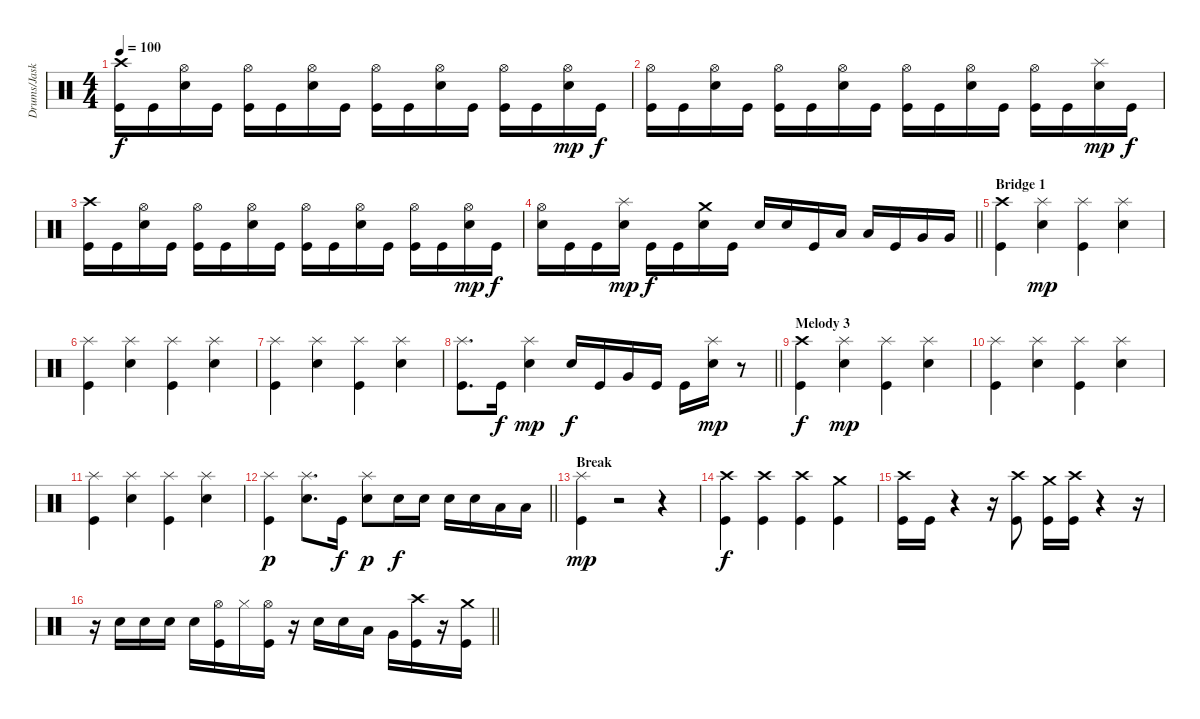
\track ("Drums/Jaska" "Drums/Jask") {instrument percussion}
\staff {score}
\articulation defaults
\ts (4 4)
\tempo 100
\clef neutral
\ks c
("Crash high (hit)" "Kick (hit)").16{dy f} "Kick (hit)".16 ("Hi-Hat (open)" "Electric Snare (hit)").16 "Kick (hit)".16 ("Hi-Hat (open)" "Kick (hit)").16 "Kick (hit)".16 ("Hi-Hat (open)" "Electric Snare (hit)").16 "Kick (hit)".16 ("Hi-Hat (open)" "Kick (hit)").16 "Kick (hit)".16 ("Hi-Hat (open)" "Electric Snare (hit)").16 "Kick (hit)".16 ("Hi-Hat (open)" "Kick (hit)").16 "Kick (hit)".16 ("Hi-Hat (open)" "Electric Snare (hit)").16{dy mp} "Kick (hit)".16{dy f} |
("Hi-Hat (open)" "Kick (hit)").16 "Kick (hit)".16 ("Hi-Hat (open)" "Electric Snare (hit)").16 "Kick (hit)".16 ("Hi-Hat (open)" "Kick (hit)").16 "Kick (hit)".16 ("Hi-Hat (open)" "Electric Snare (hit)").16 "Kick (hit)".16 ("Hi-Hat (open)" "Kick (hit)").16 "Kick (hit)".16 ("Hi-Hat (open)" "Electric Snare (hit)").16 "Kick (hit)".16 ("Hi-Hat (open)" "Kick (hit)").16 "Kick (hit)".16 ("Splash (hit)" "Electric Snare (hit)").16{dy mp} "Kick (hit)".16{dy f} |
("Crash high (hit)" "Kick (hit)").16 "Kick (hit)".16 ("Hi-Hat (open)" "Electric Snare (hit)").16 "Kick (hit)".16 ("Hi-Hat (open)" "Kick (hit)").16 "Kick (hit)".16 ("Hi-Hat (open)" "Electric Snare (hit)").16 "Kick (hit)".16 ("Hi-Hat (open)" "Kick (hit)").16 "Kick (hit)".16 ("Hi-Hat (open)" "Electric Snare (hit)").16 "Kick (hit)".16 ("Hi-Hat (open)" "Kick (hit)").16 "Kick (hit)".16 ("Hi-Hat (open)" "Electric Snare (hit)").16{dy mp} "Kick (hit)".16{dy f} |
\barLineRight lightlight
("Hi-Hat (open)" "Electric Snare (hit)").16 "Kick (hit)".16 "Kick (hit)".16 ("Splash (hit)" "Electric Snare (hit)").16{dy mp} "Kick (hit)".16{dy f} "Kick (hit)".16 ("Crash medium (hit)" "Electric Snare (hit)").16 "Kick (hit)".16 "Electric Snare (hit)".16 "Electric Snare (hit)".16 "Kick (hit)".16 "Low Tom (hit)".16 "Low Tom (hit)".16 "Kick (hit)".16 "Very Low Tom (hit)".16 "Very Low Tom (hit)".16 |
\section ("" "Bridge 1")
("Crash high (hit)" "Kick (hit)").4 ("Splash (hit)" "Electric Snare (hit)").4{dy mp} ("Splash (hit)" "Kick (hit)").4 ("Splash (hit)" "Electric Snare (hit)").4 |
("Splash (hit)" "Kick (hit)").4 ("Splash (hit)" "Electric Snare (hit)").4 ("Splash (hit)" "Kick (hit)").4 ("Splash (hit)" "Electric Snare (hit)").4 |
("Splash (hit)" "Kick (hit)").4 ("Splash (hit)" "Electric Snare (hit)").4 ("Splash (hit)" "Kick (hit)").4 ("Splash (hit)" "Electric Snare (hit)").4 |
\barLineRight lightlight
("Splash (hit)" "Kick (hit)").8{d} "Kick (hit)".16{dy f} ("Splash (hit)" "Electric Snare (hit)").4{dy mp} "Electric Snare (hit)".16{dy f} "Kick (hit)".16 "Very Low Tom (hit)".16 "Kick (hit)".16 "Kick (hit)".16 ("Splash (hit)" "Electric Snare (hit)").16{dy mp} r.8 |
\section ("" "Melody 3")
("Crash high (hit)" "Kick (hit)").4{dy f} ("Splash (hit)" "Electric Snare (hit)").4{dy mp} ("Splash (hit)" "Kick (hit)").4 ("Splash (hit)" "Electric Snare (hit)").4 |
("Splash (hit)" "Kick (hit)").4 ("Splash (hit)" "Electric Snare (hit)").4 ("Splash (hit)" "Kick (hit)").4 ("Splash (hit)" "Electric Snare (hit)").4 |
("Splash (hit)" "Kick (hit)").4 ("Splash (hit)" "Electric Snare (hit)").4 ("Splash (hit)" "Kick (hit)").4 ("Splash (hit)" "Electric Snare (hit)").4 |
\barLineRight lightlight
("Splash (hit)" "Kick (hit)").4{dy p} ("Splash (hit)" "Electric Snare (hit)").8{d} "Kick (hit)".16{dy f} ("Splash (hit)" "Electric Snare (hit)").8{dy p} "Electric Snare (hit)".16{dy f} "Electric Snare (hit)".16 "Electric Snare (hit)".16 "Electric Snare (hit)".16 "Low Tom (hit)".16 "Low Tom (hit)".16 |
\section ("" "Break")
("Splash (hit)" "Kick (hit)").4{dy mp} r.2 r.4 |
("Crash high (hit)" "Kick (hit)").4{dy f} ("Crash high (hit)" "Kick (hit)").4 ("Crash high (hit)" "Kick (hit)").4 ("Crash medium (hit)" "Kick (hit)").4 |
("Crash high (hit)" "Kick (hit)").16 "Kick (hit)".16 r.4 r.16 ("Crash high (hit)" "Kick (hit)").8 ("Crash medium (hit)" "Kick (hit)").16 ("Crash high (hit)" "Kick (hit)").16 r.4 r.16 |
\barLineRight lightlight
r.16 "Electric Snare (hit)".16 "Electric Snare (hit)".16 "Electric Snare (hit)".16 "Electric Snare (hit)".16 ("Hi-Hat (open)" "Kick (hit)").16 "Hi-Hat (closed)".16 ("Hi-Hat (open)" "Kick (hit)").16 r.16 "Electric Snare (hit)".16 "Electric Snare (hit)".16 "Low Tom (hit)".16 "Very Low Tom (hit)".16 ("Crash high (hit)" "Kick (hit)").16 r.16 ("Crash medium (hit)" "Kick (hit)").16
